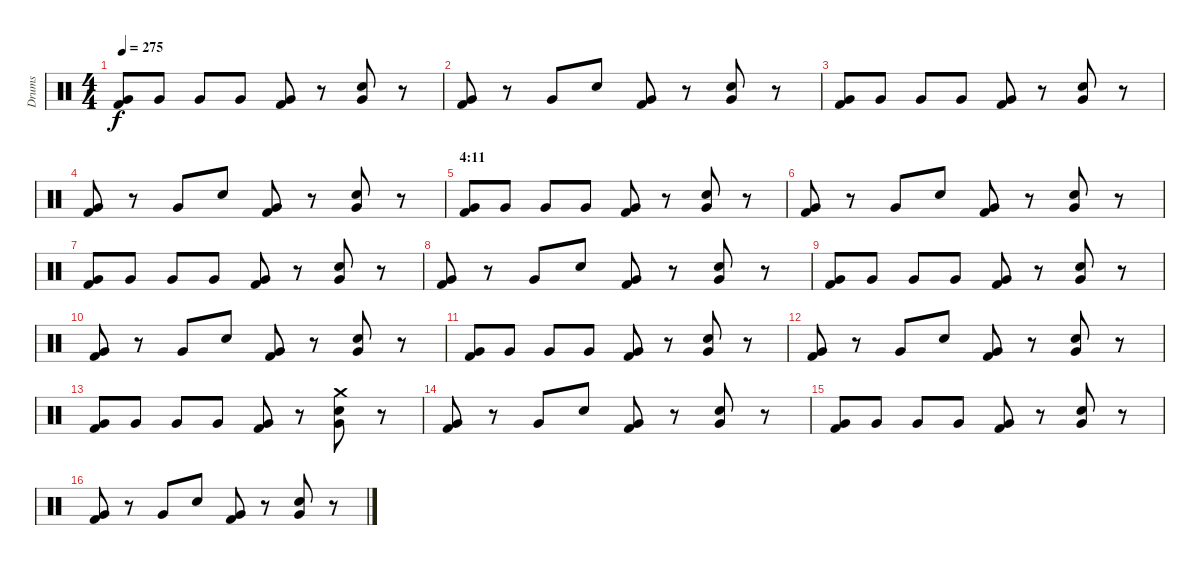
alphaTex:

\track ("Drums" "Drums") {instrument percussion}
\staff {score}
\articulation defaults
\ts (4 4)
\tempo 275
\clef neutral
\ks c
("Very Low Tom (hit)" "Kick (hit) 2").8{dy f} "Very Low Tom (hit)".8 "Very Low Tom (hit)".8 "Very Low Tom (hit)".8 ("Very Low Tom (hit)" "Kick (hit) 2").8 r.8 ("Very Low Tom (hit)" "Electric Snare (hit)").8 r.8 |
("Very Low Tom (hit)" "Kick (hit) 2").8 r.8 "Very Low Tom (hit)".8 "Electric Snare (hit)".8 ("Very Low Tom (hit)" "Kick (hit) 2").8 r.8 ("Very Low Tom (hit)" "Electric Snare (hit)").8 r.8 |
("Very Low Tom (hit)" "Kick (hit) 2").8 "Very Low Tom (hit)".8 "Very Low Tom (hit)".8 "Very Low Tom (hit)".8 ("Very Low Tom (hit)" "Kick (hit) 2").8 r.8 ("Very Low Tom (hit)" "Electric Snare (hit)").8 r.8 |
("Very Low Tom (hit)" "Kick (hit) 2").8 r.8 "Very Low Tom (hit)".8 "Electric Snare (hit)".8 ("Very Low Tom (hit)" "Kick (hit) 2").8 r.8 ("Very Low Tom (hit)" "Electric Snare (hit)").8 r.8 |
\section ("" "4:11")
("Very Low Tom (hit)" "Kick (hit) 2").8 "Very Low Tom (hit)".8 "Very Low Tom (hit)".8 "Very Low Tom (hit)".8 ("Very Low Tom (hit)" "Kick (hit) 2").8 r.8 ("Very Low Tom (hit)" "Electric Snare (hit)").8 r.8 |
("Very Low Tom (hit)" "Kick (hit) 2").8 r.8 "Very Low Tom (hit)".8 "Electric Snare (hit)".8 ("Very Low Tom (hit)" "Kick (hit) 2").8 r.8 ("Very Low Tom (hit)" "Electric Snare (hit)").8 r.8 |
("Very Low Tom (hit)" "Kick (hit) 2").8 "Very Low Tom (hit)".8 "Very Low Tom (hit)".8 "Very Low Tom (hit)".8 ("Very Low Tom (hit)" "Kick (hit) 2").8 r.8 ("Very Low Tom (hit)" "Electric Snare (hit)").8 r.8 |
("Very Low Tom (hit)" "Kick (hit) 2").8 r.8 "Very Low Tom (hit)".8 "Electric Snare (hit)".8 ("Very Low Tom (hit)" "Kick (hit) 2").8 r.8 ("Very Low Tom (hit)" "Electric Snare (hit)").8 r.8 |
("Very Low Tom (hit)" "Kick (hit) 2").8 "Very Low Tom (hit)".8 "Very Low Tom (hit)".8 "Very Low Tom (hit)".8 ("Very Low Tom (hit)" "Kick (hit) 2").8 r.8 ("Very Low Tom (hit)" "Electric Snare (hit)").8 r.8 |
("Very Low Tom (hit)" "Kick (hit) 2").8 r.8 "Very Low Tom (hit)".8 "Electric Snare (hit)".8 ("Very Low Tom (hit)" "Kick (hit) 2").8 r.8 ("Very Low Tom (hit)" "Electric Snare (hit)").8 r.8 |
("Very Low Tom (hit)" "Kick (hit) 2").8 "Very Low Tom (hit)".8 "Very Low Tom (hit)".8 "Very Low Tom (hit)".8 ("Very Low Tom (hit)" "Kick (hit) 2").8 r.8 ("Very Low Tom (hit)" "Electric Snare (hit)").8 r.8 |
("Very Low Tom (hit)" "Kick (hit) 2").8 r.8 "Very Low Tom (hit)".8 "Electric Snare (hit)".8 ("Very Low Tom (hit)" "Kick (hit) 2").8 r.8 ("Very Low Tom (hit)" "Electric Snare (hit)").8 r.8 |
("Very Low Tom (hit)" "Kick (hit) 2").8 "Very Low Tom (hit)".8 "Very Low Tom (hit)".8 "Very Low Tom (hit)".8 ("Very Low Tom (hit)" "Kick (hit) 2").8 r.8 ("Crash medium (hit)" "Very Low Tom (hit)" "Electric Snare (hit)").8 r.8 |
("Very Low Tom (hit)" "Kick (hit) 2").8 r.8 "Very Low Tom (hit)".8 "Electric Snare (hit)".8 ("Very Low Tom (hit)" "Kick (hit) 2").8 r.8 ("Very Low Tom (hit)" "Electric Snare (hit)").8 r.8 |
("Very Low Tom (hit)" "Kick (hit) 2").8 "Very Low Tom (hit)".8 "Very Low Tom (hit)".8 "Very Low Tom (hit)".8 ("Very Low Tom (hit)" "Kick (hit) 2").8 r.8 ("Very Low Tom (hit)" "Electric Snare (hit)").8 r.8 |
("Very Low Tom (hit)" "Kick (hit) 2").8 r.8 "Very Low Tom (hit)".8 "Electric Snare (hit)".8 ("Very Low Tom (hit)" "Kick (hit) 2").8 r.8 ("Very Low Tom (hit)" "Electric Snare (hit)").8 r.8
